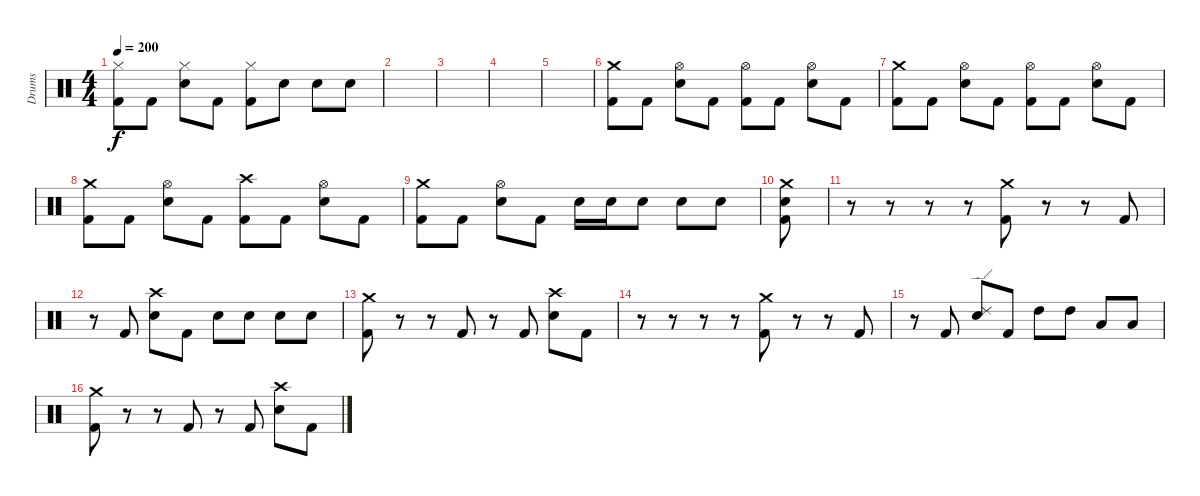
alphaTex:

\track ("Drums" "Drums") {instrument percussion}
\staff {score}
\articulation defaults
\ts (4 4)
\tempo 200
\clef neutral
\ks c
("Hi-Hat (closed)" "Kick (hit) 2").8{dy f} "Kick (hit) 2".8 ("Hi-Hat (closed)" "Electric Snare (hit)").8 "Kick (hit) 2".8 ("Hi-Hat (closed)" "Kick (hit) 2").8 "Electric Snare (hit)".8 "Electric Snare (hit)".8 "Electric Snare (hit)".8 |
|
|
|
|
("Crash medium (hit)" "Kick (hit) 2").8 "Kick (hit) 2".8 ("Hi-Hat (open)" "Electric Snare (hit)").8 "Kick (hit) 2".8 ("Hi-Hat (open)" "Kick (hit) 2").8 "Kick (hit) 2".8 ("Hi-Hat (open)" "Electric Snare (hit)").8 "Kick (hit) 2".8 |
("Crash medium (hit)" "Kick (hit) 2").8 "Kick (hit) 2".8 ("Hi-Hat (open)" "Electric Snare (hit)").8 "Kick (hit) 2".8 ("Hi-Hat (open)" "Kick (hit) 2").8 "Kick (hit) 2".8 ("Hi-Hat (open)" "Electric Snare (hit)").8 "Kick (hit) 2".8 |
("Crash medium (hit)" "Kick (hit) 2").8 "Kick (hit) 2".8 ("Hi-Hat (open)" "Electric Snare (hit)").8 "Kick (hit) 2".8 ("Crash high (hit)" "Kick (hit) 2").8 "Kick (hit) 2".8 ("Hi-Hat (open)" "Electric Snare (hit)").8 "Kick (hit) 2".8 |
("Crash medium (hit)" "Kick (hit) 2").8 "Kick (hit) 2".8 ("Hi-Hat (open)" "Electric Snare (hit)").8 "Kick (hit) 2".8 "Electric Snare (hit)".16 "Electric Snare (hit)".16 "Electric Snare (hit)".8 "Electric Snare (hit)".8 "Electric Snare (hit)".8 |
("Crash medium (hit)" "Electric Snare (hit)" "Kick (hit) 2").8 |
r.8 r.8 r.8 r.8 ("Crash medium (hit)" "Kick (hit) 2").8 r.8 r.8 "Kick (hit) 2".8 |
r.8 "Kick (hit) 2".8 ("Crash high (hit)" "Electric Snare (hit)").8 "Kick (hit) 2".8 "Electric Snare (hit)".8 "Electric Snare (hit)".8 "Electric Snare (hit)".8 "Electric Snare (hit)".8 |
("Crash medium (hit)" "Kick (hit) 2").8 r.8 r.8 "Kick (hit) 2".8 r.8 "Kick (hit) 2".8 ("Crash high (hit)" "Electric Snare (hit)").8 "Kick (hit) 2".8 |
r.8 r.8 r.8 r.8 ("Crash medium (hit)" "Kick (hit) 2").8 r.8 r.8 "Kick (hit) 2".8 |
r.8 "Kick (hit) 2".8 ("Ride (edge) 2" "Electric Snare (hit)").8 "Kick (hit) 2".8 "High Tom (hit)".8 "High Tom (hit)".8 "Low Tom (hit)".8 "Low Tom (hit)".8 |
("Crash medium (hit)" "Kick (hit) 2").8 r.8 r.8 "Kick (hit) 2".8 r.8 "Kick (hit) 2".8 ("Crash high (hit)" "Electric Snare (hit)").8 "Kick (hit) 2".8
